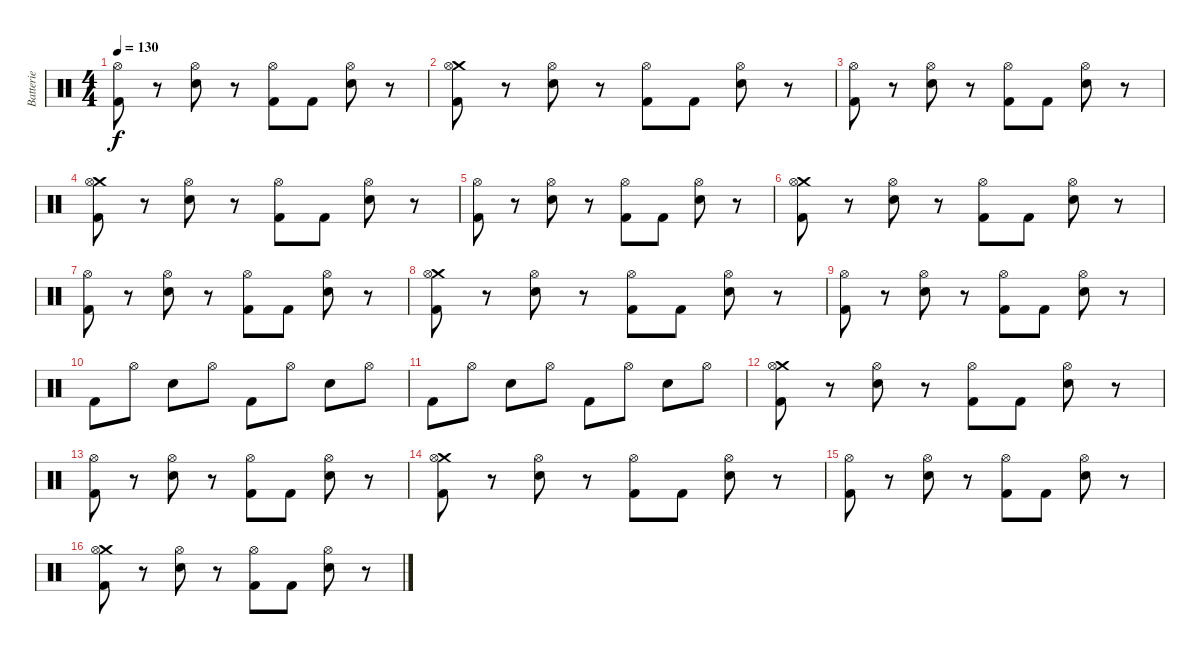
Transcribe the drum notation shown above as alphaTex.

\track ("Batterie" "Batterie") {instrument percussion}
\staff {score}
\articulation defaults
\ts (4 4)
\tempo 130
\clef neutral
\ks c
("Hi-Hat (open)" "Kick (hit) 2").8{dy f} r.8 ("Hi-Hat (open)" "Electric Snare (hit)").8 r.8 ("Hi-Hat (open)" "Kick (hit) 2").8 "Kick (hit) 2".8 ("Hi-Hat (open)" "Electric Snare (hit)").8 r.8 |
("Crash medium (hit)" "Hi-Hat (open)" "Kick (hit) 2").8 r.8 ("Hi-Hat (open)" "Electric Snare (hit)").8 r.8 ("Hi-Hat (open)" "Kick (hit) 2").8 "Kick (hit) 2".8 ("Hi-Hat (open)" "Electric Snare (hit)").8 r.8 |
("Hi-Hat (open)" "Kick (hit) 2").8 r.8 ("Hi-Hat (open)" "Electric Snare (hit)").8 r.8 ("Hi-Hat (open)" "Kick (hit) 2").8 "Kick (hit) 2".8 ("Hi-Hat (open)" "Electric Snare (hit)").8 r.8 |
("Crash medium (hit)" "Hi-Hat (open)" "Kick (hit) 2").8 r.8 ("Hi-Hat (open)" "Electric Snare (hit)").8 r.8 ("Hi-Hat (open)" "Kick (hit) 2").8 "Kick (hit) 2".8 ("Hi-Hat (open)" "Electric Snare (hit)").8 r.8 |
("Hi-Hat (open)" "Kick (hit) 2").8 r.8 ("Hi-Hat (open)" "Electric Snare (hit)").8 r.8 ("Hi-Hat (open)" "Kick (hit) 2").8 "Kick (hit) 2".8 ("Hi-Hat (open)" "Electric Snare (hit)").8 r.8 |
("Crash medium (hit)" "Hi-Hat (open)" "Kick (hit) 2").8 r.8 ("Hi-Hat (open)" "Electric Snare (hit)").8 r.8 ("Hi-Hat (open)" "Kick (hit) 2").8 "Kick (hit) 2".8 ("Hi-Hat (open)" "Electric Snare (hit)").8 r.8 |
("Hi-Hat (open)" "Kick (hit) 2").8 r.8 ("Hi-Hat (open)" "Electric Snare (hit)").8 r.8 ("Hi-Hat (open)" "Kick (hit) 2").8 "Kick (hit) 2".8 ("Hi-Hat (open)" "Electric Snare (hit)").8 r.8 |
("Crash medium (hit)" "Hi-Hat (open)" "Kick (hit) 2").8 r.8 ("Hi-Hat (open)" "Electric Snare (hit)").8 r.8 ("Hi-Hat (open)" "Kick (hit) 2").8 "Kick (hit) 2".8 ("Hi-Hat (open)" "Electric Snare (hit)").8 r.8 |
("Hi-Hat (open)" "Kick (hit) 2").8 r.8 ("Hi-Hat (open)" "Electric Snare (hit)").8 r.8 ("Hi-Hat (open)" "Kick (hit) 2").8 "Kick (hit) 2".8 ("Hi-Hat (open)" "Electric Snare (hit)").8 r.8 |
"Kick (hit) 2".8 "Hi-Hat (open)".8 "Electric Snare (hit)".8 "Hi-Hat (open)".8 "Kick (hit) 2".8 "Hi-Hat (open)".8 "Electric Snare (hit)".8 "Hi-Hat (open)".8 |
"Kick (hit) 2".8 "Hi-Hat (open)".8 "Electric Snare (hit)".8 "Hi-Hat (open)".8 "Kick (hit) 2".8 "Hi-Hat (open)".8 "Electric Snare (hit)".8 "Hi-Hat (open)".8 |
("Crash medium (hit)" "Hi-Hat (open)" "Kick (hit) 2").8 r.8 ("Hi-Hat (open)" "Electric Snare (hit)").8 r.8 ("Hi-Hat (open)" "Kick (hit) 2").8 "Kick (hit) 2".8 ("Hi-Hat (open)" "Electric Snare (hit)").8 r.8 |
("Hi-Hat (open)" "Kick (hit) 2").8 r.8 ("Hi-Hat (open)" "Electric Snare (hit)").8 r.8 ("Hi-Hat (open)" "Kick (hit) 2").8 "Kick (hit) 2".8 ("Hi-Hat (open)" "Electric Snare (hit)").8 r.8 |
("Crash medium (hit)" "Hi-Hat (open)" "Kick (hit) 2").8 r.8 ("Hi-Hat (open)" "Electric Snare (hit)").8 r.8 ("Hi-Hat (open)" "Kick (hit) 2").8 "Kick (hit) 2".8 ("Hi-Hat (open)" "Electric Snare (hit)").8 r.8 |
("Hi-Hat (open)" "Kick (hit) 2").8 r.8 ("Hi-Hat (open)" "Electric Snare (hit)").8 r.8 ("Hi-Hat (open)" "Kick (hit) 2").8 "Kick (hit) 2".8 ("Hi-Hat (open)" "Electric Snare (hit)").8 r.8 |
("Crash medium (hit)" "Hi-Hat (open)" "Kick (hit) 2").8 r.8 ("Hi-Hat (open)" "Electric Snare (hit)").8 r.8 ("Hi-Hat (open)" "Kick (hit) 2").8 "Kick (hit) 2".8 ("Hi-Hat (open)" "Electric Snare (hit)").8 r.8
